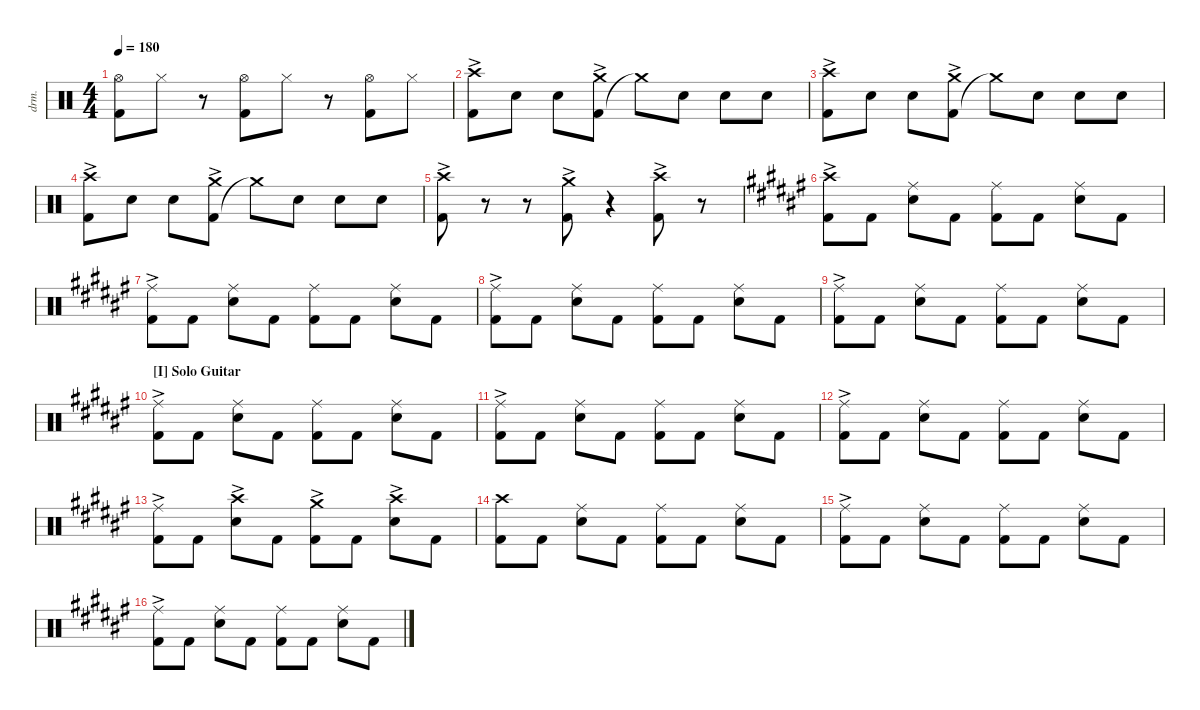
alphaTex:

\defaultSystemsLayout 4
\hideDynamics
\bracketExtendMode nobrackets
\otherSystemsTrackNameOrientation horizontal
\track ("Drum" "drm.") {instrument percussion}
\staff {score}
\articulation defaults
\ts (4 4)
\tempo 180
\clef neutral
\ks c
("Kick (hit) 2" "Hi-Hat (open)").8{dy f beam Down} "Hi-Hat (closed)".8{beam Down} r.8{beam Down} ("Kick (hit) 2" "Hi-Hat (open)").8{beam Down beam merge} "Hi-Hat (closed)".8{beam Down} r.8{beam Down} ("Kick (hit) 2" "Hi-Hat (open)").8{beam Down} "Hi-Hat (closed)".8{beam Down} |
("Kick (hit) 2"{ac} "Crash high (hit)"{ac}).8{beam Down} "Snare (hit) 2".8{beam Down} "Snare (hit) 2".8{beam Down} ("Kick (hit) 2"{ac} "Crash medium (hit)"{ac}).8{beam Down} "Crash medium (hit)"{t}.8{beam Down} "Snare (hit) 2".8{beam Down} "Snare (hit) 2".8{beam Down} "Snare (hit) 2".8{beam Down} |
("Kick (hit) 2"{ac} "Crash high (hit)"{ac}).8{beam Down} "Snare (hit) 2".8{beam Down} "Snare (hit) 2".8{beam Down} ("Kick (hit) 2"{ac} "Crash medium (hit)"{ac}).8{beam Down} "Crash medium (hit)"{t}.8{beam Down} "Snare (hit) 2".8{beam Down} "Snare (hit) 2".8{beam Down} "Snare (hit) 2".8{beam Down} |
("Kick (hit) 2"{ac} "Crash high (hit)"{ac}).8{beam Down} "Snare (hit) 2".8{beam Down} "Snare (hit) 2".8{beam Down} ("Kick (hit) 2"{ac} "Crash medium (hit)"{ac}).8{beam Down} "Crash medium (hit)"{t}.8{beam Down} "Snare (hit) 2".8{beam Down} "Snare (hit) 2".8{beam Down} "Snare (hit) 2".8{beam Down} |
("Kick (hit) 2"{ac} "Crash high (hit)"{ac}).8{beam Down} r.8{beam Down} r.8{beam Down} ("Kick (hit) 2"{ac} "Crash medium (hit)"{ac}).8{beam Down} r.4{beam Down} ("Kick (hit) 2"{ac} "Crash high (hit)"{ac}).8{beam Down} r.8{beam Down} |
\ks f#
("Kick (hit) 2"{ac acc forcenatural} "Crash high (hit)"{ac acc forcenatural}).8{beam Down} "Kick (hit) 2"{acc forcenatural}.8{beam Down} ("Snare (hit) 2"{acc forcenatural} "Ride (middle)"{acc forcenatural}).8{beam Down} "Kick (hit) 2"{acc forcenatural}.8{beam Down} ("Kick (hit) 2"{acc forcenatural} "Ride (middle)"{acc forcenatural}).8{beam Down} "Kick (hit) 2"{acc forcenatural}.8{beam Down} ("Snare (hit) 2"{acc forcenatural} "Ride (middle)"{acc forcenatural}).8{beam Down} "Kick (hit) 2"{acc forcenatural}.8{beam Down} |
("Kick (hit) 2"{ac acc forcenatural} "Ride (middle)"{acc forcenatural}).8{beam Down} "Kick (hit) 2"{acc forcenatural}.8{beam Down} ("Snare (hit) 2"{acc forcenatural} "Ride (middle)"{acc forcenatural}).8{beam Down} "Kick (hit) 2"{acc forcenatural}.8{beam Down} ("Kick (hit) 2"{acc forcenatural} "Ride (middle)"{acc forcenatural}).8{beam Down} "Kick (hit) 2"{acc forcenatural}.8{beam Down} ("Snare (hit) 2"{acc forcenatural} "Ride (middle)"{acc forcenatural}).8{beam Down} "Kick (hit) 2"{acc forcenatural}.8{beam Down} |
("Kick (hit) 2"{ac acc forcenatural} "Ride (middle)"{acc forcenatural}).8{beam Down} "Kick (hit) 2"{acc forcenatural}.8{beam Down} ("Snare (hit) 2"{acc forcenatural} "Ride (middle)"{acc forcenatural}).8{beam Down} "Kick (hit) 2"{acc forcenatural}.8{beam Down} ("Kick (hit) 2"{acc forcenatural} "Ride (middle)"{acc forcenatural}).8{beam Down} "Kick (hit) 2"{acc forcenatural}.8{beam Down} ("Snare (hit) 2"{acc forcenatural} "Ride (middle)"{acc forcenatural}).8{beam Down} "Kick (hit) 2"{acc forcenatural}.8{beam Down} |
("Kick (hit) 2"{ac acc forcenatural} "Ride (middle)"{acc forcenatural}).8{beam Down} "Kick (hit) 2"{acc forcenatural}.8{beam Down} ("Snare (hit) 2"{acc forcenatural} "Ride (middle)"{acc forcenatural}).8{beam Down} "Kick (hit) 2"{acc forcenatural}.8{beam Down} ("Kick (hit) 2"{acc forcenatural} "Ride (middle)"{acc forcenatural}).8{beam Down} "Kick (hit) 2"{acc forcenatural}.8{beam Down} ("Snare (hit) 2"{acc forcenatural} "Ride (middle)"{acc forcenatural}).8{beam Down} "Kick (hit) 2"{acc forcenatural}.8{beam Down} |
\section ("I" "Solo Guitar")
("Kick (hit) 2"{ac acc forcenatural} "Ride (middle)"{acc forcenatural}).8{beam Down} "Kick (hit) 2"{acc forcenatural}.8{beam Down} ("Snare (hit) 2"{acc forcenatural} "Ride (middle)"{acc forcenatural}).8{beam Down} "Kick (hit) 2"{acc forcenatural}.8{beam Down} ("Kick (hit) 2"{acc forcenatural} "Ride (middle)"{acc forcenatural}).8{beam Down} "Kick (hit) 2"{acc forcenatural}.8{beam Down} ("Snare (hit) 2"{acc forcenatural} "Ride (middle)"{acc forcenatural}).8{beam Down} "Kick (hit) 2"{acc forcenatural}.8{beam Down} |
("Kick (hit) 2"{ac acc forcenatural} "Ride (middle)"{acc forcenatural}).8{beam Down} "Kick (hit) 2"{acc forcenatural}.8{beam Down} ("Snare (hit) 2"{acc forcenatural} "Ride (middle)"{acc forcenatural}).8{beam Down} "Kick (hit) 2"{acc forcenatural}.8{beam Down} ("Kick (hit) 2"{acc forcenatural} "Ride (middle)"{acc forcenatural}).8{beam Down} "Kick (hit) 2"{acc forcenatural}.8{beam Down} ("Snare (hit) 2"{acc forcenatural} "Ride (middle)"{acc forcenatural}).8{beam Down} "Kick (hit) 2"{acc forcenatural}.8{beam Down} |
("Kick (hit) 2"{ac acc forcenatural} "Ride (middle)"{acc forcenatural}).8{beam Down} "Kick (hit) 2"{acc forcenatural}.8{beam Down} ("Snare (hit) 2"{acc forcenatural} "Ride (middle)"{acc forcenatural}).8{beam Down} "Kick (hit) 2"{acc forcenatural}.8{beam Down} ("Kick (hit) 2"{acc forcenatural} "Ride (middle)"{acc forcenatural}).8{beam Down} "Kick (hit) 2"{acc forcenatural}.8{beam Down} ("Snare (hit) 2"{acc forcenatural} "Ride (middle)"{acc forcenatural}).8{beam Down} "Kick (hit) 2"{acc forcenatural}.8{beam Down} |
("Kick (hit) 2"{ac acc forcenatural} "Ride (middle)"{acc forcenatural}).8{beam Down} "Kick (hit) 2"{acc forcenatural}.8{beam Down} ("Snare (hit) 2"{ac acc forcenatural} "Crash high (hit)"{ac acc forcenatural}).8{beam Down} "Kick (hit) 2"{acc forcenatural}.8{beam Down} ("Kick (hit) 2"{ac acc forcenatural} "Crash medium (hit)"{ac acc forcenatural}).8{beam Down} "Kick (hit) 2"{acc forcenatural}.8{beam Down} ("Snare (hit) 2"{ac acc forcenatural} "Crash high (hit)"{ac acc forcenatural}).8{beam Down} "Kick (hit) 2"{acc forcenatural}.8{beam Down} |
("Kick (hit) 2"{acc forcenatural} "Crash high (hit)"{acc forcenatural}).8{beam Down} "Kick (hit) 2"{acc forcenatural}.8{beam Down} ("Snare (hit) 2"{acc forcenatural} "Ride (middle)"{acc forcenatural}).8{beam Down} "Kick (hit) 2"{acc forcenatural}.8{beam Down} ("Kick (hit) 2"{acc forcenatural} "Ride (middle)"{acc forcenatural}).8{beam Down} "Kick (hit) 2"{acc forcenatural}.8{beam Down} ("Snare (hit) 2"{acc forcenatural} "Ride (middle)"{acc forcenatural}).8{beam Down} "Kick (hit) 2"{acc forcenatural}.8{beam Down} |
("Kick (hit) 2"{ac acc forcenatural} "Ride (middle)"{acc forcenatural}).8{beam Down} "Kick (hit) 2"{acc forcenatural}.8{beam Down} ("Snare (hit) 2"{acc forcenatural} "Ride (middle)"{acc forcenatural}).8{beam Down} "Kick (hit) 2"{acc forcenatural}.8{beam Down} ("Kick (hit) 2"{acc forcenatural} "Ride (middle)"{acc forcenatural}).8{beam Down} "Kick (hit) 2"{acc forcenatural}.8{beam Down} ("Snare (hit) 2"{acc forcenatural} "Ride (middle)"{acc forcenatural}).8{beam Down} "Kick (hit) 2"{acc forcenatural}.8{beam Down} |
("Kick (hit) 2"{ac acc forcenatural} "Ride (middle)"{acc forcenatural}).8{beam Down} "Kick (hit) 2"{acc forcenatural}.8{beam Down} ("Snare (hit) 2"{acc forcenatural} "Ride (middle)"{acc forcenatural}).8{beam Down} "Kick (hit) 2"{acc forcenatural}.8{beam Down} ("Kick (hit) 2"{acc forcenatural} "Ride (middle)"{acc forcenatural}).8{beam Down} "Kick (hit) 2"{acc forcenatural}.8{beam Down} ("Snare (hit) 2"{acc forcenatural} "Ride (middle)"{acc forcenatural}).8{beam Down} "Kick (hit) 2"{acc forcenatural}.8{beam Down}
